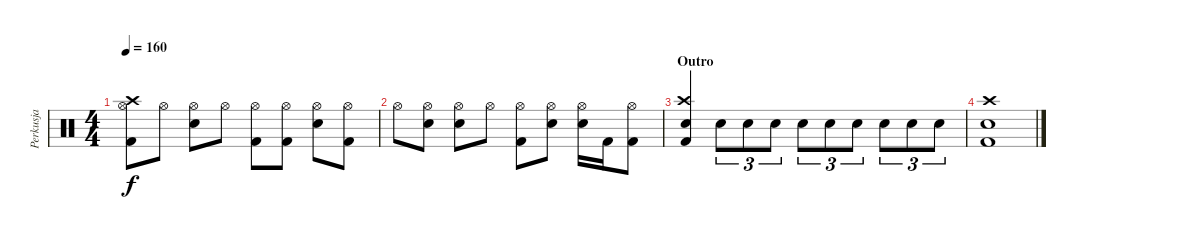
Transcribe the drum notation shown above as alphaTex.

\track ("Perkusja" "Perkusja") {instrument percussion}
\staff {score}
\articulation defaults
\ts (4 4)
\tempo 160
\clef neutral
\ks c
("Hi-Hat (open)" "Kick (hit) 2" "Crash high (hit)").8{dy f} "Hi-Hat (open)".8 ("Hi-Hat (open)" "Snare (hit) 2").8 "Hi-Hat (open)".8 ("Hi-Hat (open)" "Kick (hit) 2").8 ("Hi-Hat (open)" "Kick (hit) 2").8 ("Hi-Hat (open)" "Snare (hit) 2").8 ("Hi-Hat (open)" "Kick (hit) 2").8 |
"Hi-Hat (open)".8 ("Hi-Hat (open)" "Snare (hit) 2").8 ("Hi-Hat (open)" "Snare (hit) 2").8 "Hi-Hat (open)".8 ("Hi-Hat (open)" "Kick (hit) 2").8 ("Hi-Hat (open)" "Snare (hit) 2").8 ("Hi-Hat (open)" "Snare (hit) 2").16 "Kick (hit) 2".16 ("Hi-Hat (open)" "Kick (hit) 2").8 |
\section ("" "Outro")
("Crash high (hit)" "Snare (hit) 2" "Kick (hit) 2").4 "Snare (hit) 2".8{tu (3 2)} "Snare (hit) 2".8{tu (3 2)} "Snare (hit) 2".8{tu (3 2)} "Snare (hit) 2".8{tu (3 2)} "Snare (hit) 2".8{tu (3 2)} "Snare (hit) 2".8{tu (3 2)} "Snare (hit) 2".8{tu (3 2)} "Snare (hit) 2".8{tu (3 2)} "Snare (hit) 2".8{tu (3 2)} |
("Crash high (hit)" "Snare (hit) 2" "Kick (hit) 2").1
